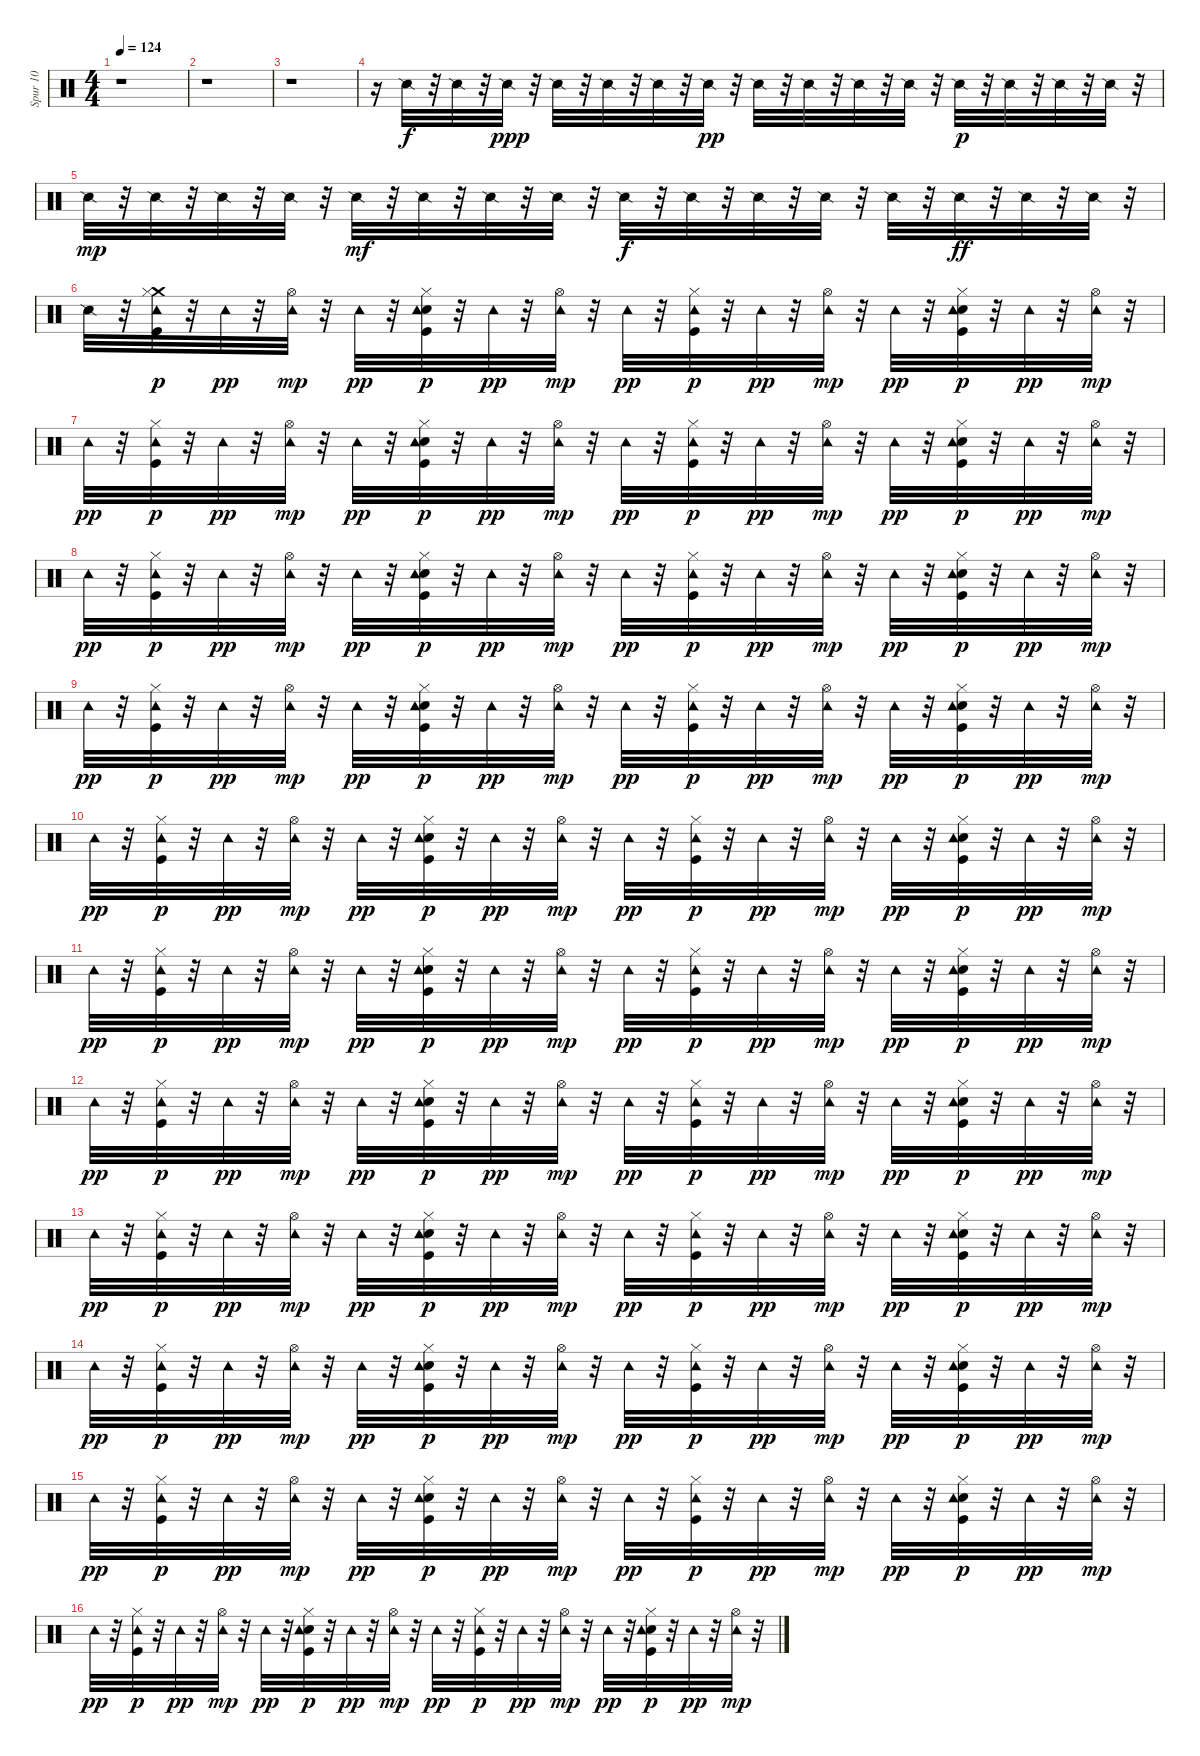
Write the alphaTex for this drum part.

\track ("Spur 10" "Spur 10") {instrument percussion}
\staff {score}
\articulation defaults
\ts (4 4)
\tempo 124
\clef neutral
\ks c
r.1{dy f} |
r.1 |
r.1 |
r.16 "Snare (side stick) 2".32 r.32 "Snare (side stick) 2".32 r.32 "Snare (side stick) 2".32{dy ppp} r.32 "Snare (side stick) 2".32 r.32 "Snare (side stick) 2".32 r.32 "Snare (side stick) 2".32 r.32 "Snare (side stick) 2".32{dy pp balance 11} r.32 "Snare (side stick) 2".32 r.32 "Snare (side stick) 2".32{balance 15} r.32 "Snare (side stick) 2".32 r.32 "Snare (side stick) 2".32{balance 11} r.32 "Snare (side stick) 2".32{dy p} r.32 "Snare (side stick) 2".32{balance 8} r.32 "Snare (side stick) 2".32 r.32 "Snare (side stick) 2".32{balance 4} r.32 |
"Snare (side stick) 2".32{dy mp} r.32 "Snare (side stick) 2".32{balance 0} r.32 "Snare (side stick) 2".32 r.32 "Snare (side stick) 2".32{balance 4} r.32 "Snare (side stick) 2".32{dy mf} r.32 "Snare (side stick) 2".32{balance 8} r.32 "Snare (side stick) 2".32 r.32 "Snare (side stick) 2".32{balance 11} r.32 "Snare (side stick) 2".32{dy f} r.32 "Snare (side stick) 2".32{balance 15} r.32 "Snare (side stick) 2".32 r.32 "Snare (side stick) 2".32{balance 11} r.32 "Snare (side stick) 2".32 r.32 "Snare (side stick) 2".32{dy ff balance 8} r.32 "Snare (side stick) 2".32 r.32 "Snare (side stick) 2".32{balance 4} r.32 |
"Snare (side stick) 2".32 r.32 ("Crash medium (hit)" "Kick (hit)" "Hi-Hat (closed)" "Tambourine (hit)").32{dy p balance 8} r.32 "Tambourine (hit)".32{dy pp} r.32 ("Hi-Hat (open)" "Tambourine (hit)").32{dy mp} r.32 "Tambourine (hit)".32{dy pp} r.32 ("Kick (hit)" "Snare (hit) 2" "Hi-Hat (closed)" "Tambourine (hit)").32{dy p} r.32 "Tambourine (hit)".32{dy pp} r.32 ("Hi-Hat (open)" "Tambourine (hit)").32{dy mp} r.32 "Tambourine (hit)".32{dy pp} r.32 ("Kick (hit)" "Hi-Hat (closed)" "Tambourine (hit)").32{dy p} r.32 "Tambourine (hit)".32{dy pp} r.32 ("Hi-Hat (open)" "Tambourine (hit)").32{dy mp} r.32 "Tambourine (hit)".32{dy pp} r.32 ("Kick (hit)" "Snare (hit) 2" "Hi-Hat (closed)" "Tambourine (hit)").32{dy p} r.32 "Tambourine (hit)".32{dy pp} r.32 ("Hi-Hat (open)" "Tambourine (hit)").32{dy mp} r.32 |
"Tambourine (hit)".32{dy pp} r.32 ("Kick (hit)" "Hi-Hat (closed)" "Tambourine (hit)").32{dy p} r.32 "Tambourine (hit)".32{dy pp} r.32 ("Hi-Hat (open)" "Tambourine (hit)").32{dy mp} r.32 "Tambourine (hit)".32{dy pp} r.32 ("Kick (hit)" "Snare (hit) 2" "Hi-Hat (closed)" "Tambourine (hit)").32{dy p} r.32 "Tambourine (hit)".32{dy pp} r.32 ("Hi-Hat (open)" "Tambourine (hit)").32{dy mp} r.32 "Tambourine (hit)".32{dy pp} r.32 ("Kick (hit)" "Hi-Hat (closed)" "Tambourine (hit)").32{dy p} r.32 "Tambourine (hit)".32{dy pp} r.32 ("Hi-Hat (open)" "Tambourine (hit)").32{dy mp} r.32 "Tambourine (hit)".32{dy pp} r.32 ("Kick (hit)" "Snare (hit) 2" "Hi-Hat (closed)" "Tambourine (hit)").32{dy p} r.32 "Tambourine (hit)".32{dy pp} r.32 ("Hi-Hat (open)" "Tambourine (hit)").32{dy mp} r.32 |
"Tambourine (hit)".32{dy pp} r.32 ("Kick (hit)" "Hi-Hat (closed)" "Tambourine (hit)").32{dy p} r.32 "Tambourine (hit)".32{dy pp} r.32 ("Hi-Hat (open)" "Tambourine (hit)").32{dy mp} r.32 "Tambourine (hit)".32{dy pp} r.32 ("Kick (hit)" "Snare (hit) 2" "Hi-Hat (closed)" "Tambourine (hit)").32{dy p} r.32 "Tambourine (hit)".32{dy pp} r.32 ("Hi-Hat (open)" "Tambourine (hit)").32{dy mp} r.32 "Tambourine (hit)".32{dy pp} r.32 ("Kick (hit)" "Hi-Hat (closed)" "Tambourine (hit)").32{dy p} r.32 "Tambourine (hit)".32{dy pp} r.32 ("Hi-Hat (open)" "Tambourine (hit)").32{dy mp} r.32 "Tambourine (hit)".32{dy pp} r.32 ("Kick (hit)" "Snare (hit) 2" "Hi-Hat (closed)" "Tambourine (hit)").32{dy p} r.32 "Tambourine (hit)".32{dy pp} r.32 ("Hi-Hat (open)" "Tambourine (hit)").32{dy mp} r.32 |
"Tambourine (hit)".32{dy pp} r.32 ("Kick (hit)" "Hi-Hat (closed)" "Tambourine (hit)").32{dy p} r.32 "Tambourine (hit)".32{dy pp} r.32 ("Hi-Hat (open)" "Tambourine (hit)").32{dy mp} r.32 "Tambourine (hit)".32{dy pp} r.32 ("Kick (hit)" "Snare (hit) 2" "Hi-Hat (closed)" "Tambourine (hit)").32{dy p} r.32 "Tambourine (hit)".32{dy pp} r.32 ("Hi-Hat (open)" "Tambourine (hit)").32{dy mp} r.32 "Tambourine (hit)".32{dy pp} r.32 ("Kick (hit)" "Hi-Hat (closed)" "Tambourine (hit)").32{dy p} r.32 "Tambourine (hit)".32{dy pp} r.32 ("Hi-Hat (open)" "Tambourine (hit)").32{dy mp} r.32 "Tambourine (hit)".32{dy pp} r.32 ("Kick (hit)" "Snare (hit) 2" "Hi-Hat (closed)" "Tambourine (hit)").32{dy p} r.32 "Tambourine (hit)".32{dy pp} r.32 ("Hi-Hat (open)" "Tambourine (hit)").32{dy mp} r.32 |
"Tambourine (hit)".32{dy pp} r.32 ("Kick (hit)" "Hi-Hat (closed)" "Tambourine (hit)").32{dy p} r.32 "Tambourine (hit)".32{dy pp} r.32 ("Hi-Hat (open)" "Tambourine (hit)").32{dy mp} r.32 "Tambourine (hit)".32{dy pp} r.32 ("Kick (hit)" "Snare (hit) 2" "Hi-Hat (closed)" "Tambourine (hit)").32{dy p} r.32 "Tambourine (hit)".32{dy pp} r.32 ("Hi-Hat (open)" "Tambourine (hit)").32{dy mp} r.32 "Tambourine (hit)".32{dy pp} r.32 ("Kick (hit)" "Hi-Hat (closed)" "Tambourine (hit)").32{dy p} r.32 "Tambourine (hit)".32{dy pp} r.32 ("Hi-Hat (open)" "Tambourine (hit)").32{dy mp} r.32 "Tambourine (hit)".32{dy pp} r.32 ("Kick (hit)" "Snare (hit) 2" "Hi-Hat (closed)" "Tambourine (hit)").32{dy p} r.32 "Tambourine (hit)".32{dy pp} r.32 ("Hi-Hat (open)" "Tambourine (hit)").32{dy mp} r.32 |
"Tambourine (hit)".32{dy pp} r.32 ("Kick (hit)" "Hi-Hat (closed)" "Tambourine (hit)").32{dy p} r.32 "Tambourine (hit)".32{dy pp} r.32 ("Hi-Hat (open)" "Tambourine (hit)").32{dy mp} r.32 "Tambourine (hit)".32{dy pp} r.32 ("Kick (hit)" "Snare (hit) 2" "Hi-Hat (closed)" "Tambourine (hit)").32{dy p} r.32 "Tambourine (hit)".32{dy pp} r.32 ("Hi-Hat (open)" "Tambourine (hit)").32{dy mp} r.32 "Tambourine (hit)".32{dy pp} r.32 ("Kick (hit)" "Hi-Hat (closed)" "Tambourine (hit)").32{dy p} r.32 "Tambourine (hit)".32{dy pp} r.32 ("Hi-Hat (open)" "Tambourine (hit)").32{dy mp} r.32 "Tambourine (hit)".32{dy pp} r.32 ("Kick (hit)" "Snare (hit) 2" "Hi-Hat (closed)" "Tambourine (hit)").32{dy p} r.32 "Tambourine (hit)".32{dy pp} r.32 ("Hi-Hat (open)" "Tambourine (hit)").32{dy mp} r.32 |
"Tambourine (hit)".32{dy pp} r.32 ("Kick (hit)" "Hi-Hat (closed)" "Tambourine (hit)").32{dy p} r.32 "Tambourine (hit)".32{dy pp} r.32 ("Hi-Hat (open)" "Tambourine (hit)").32{dy mp} r.32 "Tambourine (hit)".32{dy pp} r.32 ("Kick (hit)" "Snare (hit) 2" "Hi-Hat (closed)" "Tambourine (hit)").32{dy p} r.32 "Tambourine (hit)".32{dy pp} r.32 ("Hi-Hat (open)" "Tambourine (hit)").32{dy mp} r.32 "Tambourine (hit)".32{dy pp} r.32 ("Kick (hit)" "Hi-Hat (closed)" "Tambourine (hit)").32{dy p} r.32 "Tambourine (hit)".32{dy pp} r.32 ("Hi-Hat (open)" "Tambourine (hit)").32{dy mp} r.32 "Tambourine (hit)".32{dy pp} r.32 ("Kick (hit)" "Snare (hit) 2" "Hi-Hat (closed)" "Tambourine (hit)").32{dy p} r.32 "Tambourine (hit)".32{dy pp} r.32 ("Hi-Hat (open)" "Tambourine (hit)").32{dy mp} r.32 |
"Tambourine (hit)".32{dy pp} r.32 ("Kick (hit)" "Hi-Hat (closed)" "Tambourine (hit)").32{dy p} r.32 "Tambourine (hit)".32{dy pp} r.32 ("Hi-Hat (open)" "Tambourine (hit)").32{dy mp} r.32 "Tambourine (hit)".32{dy pp} r.32 ("Kick (hit)" "Snare (hit) 2" "Hi-Hat (closed)" "Tambourine (hit)").32{dy p} r.32 "Tambourine (hit)".32{dy pp} r.32 ("Hi-Hat (open)" "Tambourine (hit)").32{dy mp} r.32 "Tambourine (hit)".32{dy pp} r.32 ("Kick (hit)" "Hi-Hat (closed)" "Tambourine (hit)").32{dy p} r.32 "Tambourine (hit)".32{dy pp} r.32 ("Hi-Hat (open)" "Tambourine (hit)").32{dy mp} r.32 "Tambourine (hit)".32{dy pp} r.32 ("Kick (hit)" "Snare (hit) 2" "Hi-Hat (closed)" "Tambourine (hit)").32{dy p} r.32 "Tambourine (hit)".32{dy pp} r.32 ("Hi-Hat (open)" "Tambourine (hit)").32{dy mp} r.32 |
"Tambourine (hit)".32{dy pp} r.32 ("Kick (hit)" "Hi-Hat (closed)" "Tambourine (hit)").32{dy p} r.32 "Tambourine (hit)".32{dy pp} r.32 ("Hi-Hat (open)" "Tambourine (hit)").32{dy mp} r.32 "Tambourine (hit)".32{dy pp} r.32 ("Kick (hit)" "Snare (hit) 2" "Hi-Hat (closed)" "Tambourine (hit)").32{dy p} r.32 "Tambourine (hit)".32{dy pp} r.32 ("Hi-Hat (open)" "Tambourine (hit)").32{dy mp} r.32 "Tambourine (hit)".32{dy pp} r.32 ("Kick (hit)" "Hi-Hat (closed)" "Tambourine (hit)").32{dy p} r.32 "Tambourine (hit)".32{dy pp} r.32 ("Hi-Hat (open)" "Tambourine (hit)").32{dy mp} r.32 "Tambourine (hit)".32{dy pp} r.32 ("Kick (hit)" "Snare (hit) 2" "Hi-Hat (closed)" "Tambourine (hit)").32{dy p} r.32 "Tambourine (hit)".32{dy pp} r.32 ("Hi-Hat (open)" "Tambourine (hit)").32{dy mp} r.32 |
"Tambourine (hit)".32{dy pp} r.32 ("Kick (hit)" "Hi-Hat (closed)" "Tambourine (hit)").32{dy p} r.32 "Tambourine (hit)".32{dy pp} r.32 ("Hi-Hat (open)" "Tambourine (hit)").32{dy mp} r.32 "Tambourine (hit)".32{dy pp} r.32 ("Kick (hit)" "Snare (hit) 2" "Hi-Hat (closed)" "Tambourine (hit)").32{dy p} r.32 "Tambourine (hit)".32{dy pp} r.32 ("Hi-Hat (open)" "Tambourine (hit)").32{dy mp} r.32 "Tambourine (hit)".32{dy pp} r.32 ("Kick (hit)" "Hi-Hat (closed)" "Tambourine (hit)").32{dy p} r.32 "Tambourine (hit)".32{dy pp} r.32 ("Hi-Hat (open)" "Tambourine (hit)").32{dy mp} r.32 "Tambourine (hit)".32{dy pp} r.32 ("Kick (hit)" "Snare (hit) 2" "Hi-Hat (closed)" "Tambourine (hit)").32{dy p} r.32 "Tambourine (hit)".32{dy pp} r.32 ("Hi-Hat (open)" "Tambourine (hit)").32{dy mp} r.32 |
"Tambourine (hit)".32{dy pp} r.32 ("Kick (hit)" "Hi-Hat (closed)" "Tambourine (hit)").32{dy p} r.32 "Tambourine (hit)".32{dy pp} r.32 ("Hi-Hat (open)" "Tambourine (hit)").32{dy mp} r.32 "Tambourine (hit)".32{dy pp} r.32 ("Kick (hit)" "Snare (hit) 2" "Hi-Hat (closed)" "Tambourine (hit)").32{dy p} r.32 "Tambourine (hit)".32{dy pp} r.32 ("Hi-Hat (open)" "Tambourine (hit)").32{dy mp} r.32 "Tambourine (hit)".32{dy pp} r.32 ("Kick (hit)" "Hi-Hat (closed)" "Tambourine (hit)").32{dy p} r.32 "Tambourine (hit)".32{dy pp} r.32 ("Hi-Hat (open)" "Tambourine (hit)").32{dy mp} r.32 "Tambourine (hit)".32{dy pp} r.32 ("Kick (hit)" "Snare (hit) 2" "Hi-Hat (closed)" "Tambourine (hit)").32{dy p} r.32 "Tambourine (hit)".32{dy pp} r.32 ("Hi-Hat (open)" "Tambourine (hit)").32{dy mp} r.32
